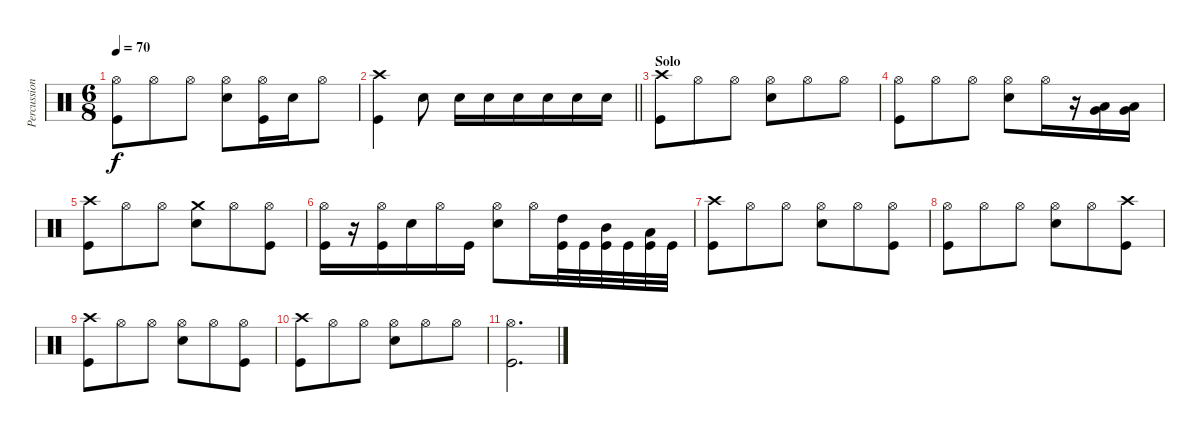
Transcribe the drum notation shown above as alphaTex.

\track ("Percussion" "Percussion") {instrument percussion}
\staff {score}
\articulation defaults
\ts (6 8)
\tempo 70
\clef neutral
\ks c
("Kick (hit)" "Hi-Hat (open)").8{dy f} "Hi-Hat (open)".8 "Hi-Hat (open)".8 ("Electric Snare (hit)" "Hi-Hat (open)").8 ("Kick (hit)" "Hi-Hat (open)").16 "Electric Snare (hit)".16 "Hi-Hat (open)".8 |
\barLineRight lightlight
("Kick (hit)" "Crash high (hit)").4 "Electric Snare (hit)".8 "Electric Snare (hit)".16 "Electric Snare (hit)".16 "Electric Snare (hit)".16 "Electric Snare (hit)".16 "Electric Snare (hit)".16 "Electric Snare (hit)".16 |
\section ("" "Solo")
("Kick (hit)" "Crash high (hit)").8{volume 16} "Hi-Hat (open)".8 "Hi-Hat (open)".8 ("Electric Snare (hit)" "Hi-Hat (open)").8 "Hi-Hat (open)".8 "Hi-Hat (open)".8 |
("Kick (hit)" "Hi-Hat (open)").8 "Hi-Hat (open)".8 "Hi-Hat (open)".8 ("Electric Snare (hit)" "Hi-Hat (open)").8 "Hi-Hat (open)".16 r.16 ("Low Tom (hit)" "Very Low Tom (hit)").16 ("Low Tom (hit)" "Very Low Tom (hit)").16 |
("Kick (hit)" "Crash high (hit)").8 "Hi-Hat (open)".8 "Hi-Hat (open)".8 ("Electric Snare (hit)" "Crash medium (hit)").8 "Hi-Hat (open)".8 ("Kick (hit)" "Hi-Hat (open)").8 |
("Kick (hit)" "Hi-Hat (open)").16 r.16 ("Kick (hit)" "Hi-Hat (open)").16 "Electric Snare (hit)".16 "Hi-Hat (open)".16 "Kick (hit)".16 ("Electric Snare (hit)" "Hi-Hat (open)").8 "Hi-Hat (open)".16 ("Kick (hit)" "High Tom (hit)").32 "Kick (hit)".32 ("Kick (hit)" "Mid Tom (hit)").32 "Kick (hit)".32 ("Kick (hit)" "Low Tom (hit)").32 "Kick (hit)".32 |
("Kick (hit)" "Crash high (hit)").8 "Hi-Hat (open)".8 "Hi-Hat (open)".8 ("Electric Snare (hit)" "Hi-Hat (open)").8 "Hi-Hat (open)".8 ("Kick (hit)" "Hi-Hat (open)").8 |
("Kick (hit)" "Hi-Hat (open)").8 "Hi-Hat (open)".8 "Hi-Hat (open)".8 ("Electric Snare (hit)" "Hi-Hat (open)").8 "Hi-Hat (open)".8 ("Kick (hit)" "Crash high (hit)").8 |
("Kick (hit)" "Crash high (hit)").8 "Hi-Hat (open)".8 "Hi-Hat (open)".8 ("Electric Snare (hit)" "Hi-Hat (open)").8 "Hi-Hat (open)".8 ("Kick (hit)" "Hi-Hat (open)").8 |
("Kick (hit)" "Crash high (hit)").8 "Hi-Hat (open)".8 "Hi-Hat (open)".8 ("Electric Snare (hit)" "Hi-Hat (open)").8 "Hi-Hat (open)".8 "Hi-Hat (open)".8 |
("Kick (hit)" "Hi-Hat (open)").2{d}
